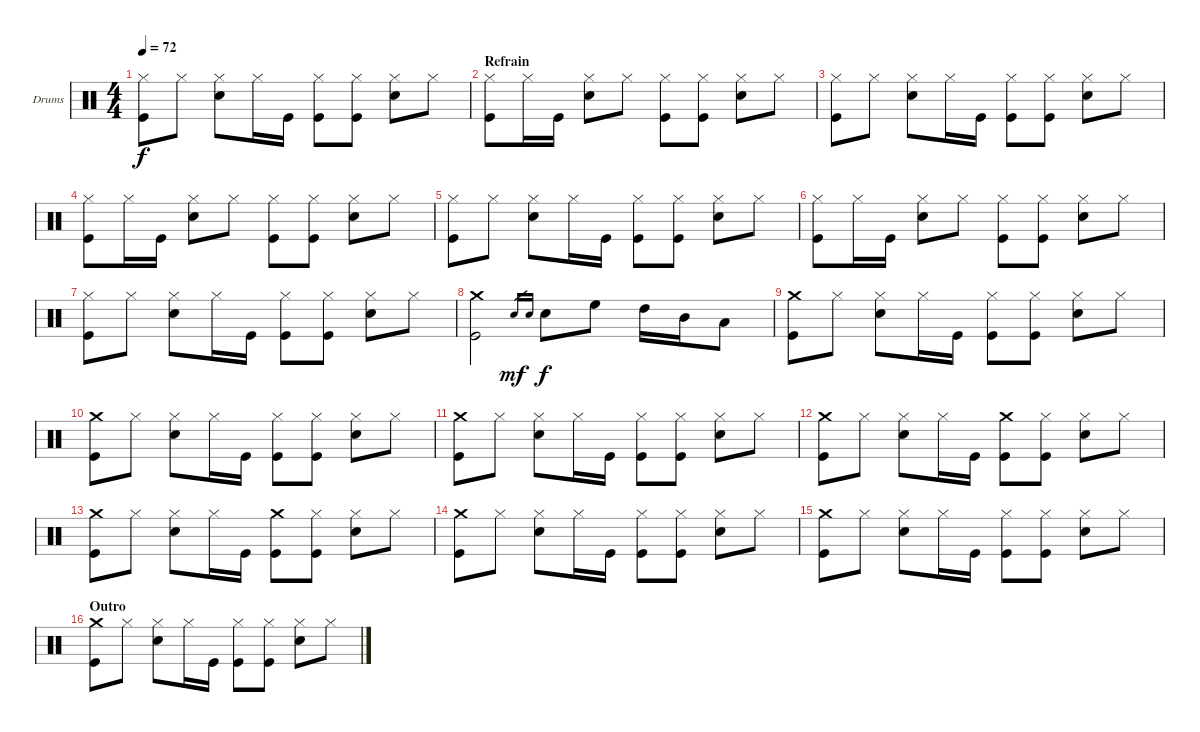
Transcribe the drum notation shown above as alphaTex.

\bracketExtendMode groupsimilarinstruments
\firstSystemTrackNameOrientation horizontal
\otherSystemsTrackNameOrientation horizontal
\track ("Roger Taylor" "Drums") {multiBarRest instrument percussion}
\staff {score}
\articulation defaults
\ts (4 4)
\tempo 72
\clef neutral
\ks c
("Hi-Hat (closed)" "Kick (hit)").8{dy f} "Hi-Hat (closed)".8 ("Hi-Hat (closed)" "Snare (hit) 2").8 "Hi-Hat (closed)".16 "Kick (hit)".16 ("Hi-Hat (closed)" "Kick (hit)").8 ("Hi-Hat (closed)" "Kick (hit)").8 ("Hi-Hat (closed)" "Snare (hit) 2").8 "Hi-Hat (closed)".8 |
\section ("" "Refrain")
("Hi-Hat (closed)" "Kick (hit)").8 "Hi-Hat (closed)".16 "Kick (hit)".16 ("Hi-Hat (closed)" "Snare (hit) 2").8 "Hi-Hat (closed)".8 ("Hi-Hat (closed)" "Kick (hit)").8 ("Hi-Hat (closed)" "Kick (hit)").8 ("Hi-Hat (closed)" "Snare (hit) 2").8 "Hi-Hat (closed)".8 |
("Hi-Hat (closed)" "Kick (hit)").8 "Hi-Hat (closed)".8 ("Hi-Hat (closed)" "Snare (hit) 2").8 "Hi-Hat (closed)".16 "Kick (hit)".16 ("Hi-Hat (closed)" "Kick (hit)").8 ("Hi-Hat (closed)" "Kick (hit)").8 ("Hi-Hat (closed)" "Snare (hit) 2").8 "Hi-Hat (closed)".8 |
("Hi-Hat (closed)" "Kick (hit)").8 "Hi-Hat (closed)".16 "Kick (hit)".16 ("Hi-Hat (closed)" "Snare (hit) 2").8 "Hi-Hat (closed)".8 ("Hi-Hat (closed)" "Kick (hit)").8 ("Hi-Hat (closed)" "Kick (hit)").8 ("Hi-Hat (closed)" "Snare (hit) 2").8 "Hi-Hat (closed)".8 |
("Hi-Hat (closed)" "Kick (hit)").8 "Hi-Hat (closed)".8 ("Hi-Hat (closed)" "Snare (hit) 2").8 "Hi-Hat (closed)".16 "Kick (hit)".16 ("Hi-Hat (closed)" "Kick (hit)").8 ("Hi-Hat (closed)" "Kick (hit)").8 ("Hi-Hat (closed)" "Snare (hit) 2").8 "Hi-Hat (closed)".8 |
("Hi-Hat (closed)" "Kick (hit)").8 "Hi-Hat (closed)".16 "Kick (hit)".16 ("Hi-Hat (closed)" "Snare (hit) 2").8 "Hi-Hat (closed)".8 ("Hi-Hat (closed)" "Kick (hit)").8 ("Hi-Hat (closed)" "Kick (hit)").8 ("Hi-Hat (closed)" "Snare (hit) 2").8 "Hi-Hat (closed)".8 |
("Hi-Hat (closed)" "Kick (hit)").8 "Hi-Hat (closed)".8 ("Hi-Hat (closed)" "Snare (hit) 2").8 "Hi-Hat (closed)".16 "Kick (hit)".16 ("Hi-Hat (closed)" "Kick (hit)").8 ("Hi-Hat (closed)" "Kick (hit)").8 ("Hi-Hat (closed)" "Snare (hit) 2").8 "Hi-Hat (closed)".8 |
("Crash medium (hit)" "Kick (hit)").2 "Snare (hit) 2".16{gr dy mf} "Snare (hit) 2".16{gr} "Snare (hit) 2".8{dy f} "High Floor Tom (hit)".8 "High Tom (hit)".16 "Mid Tom (hit)".16 "Low Tom (hit)".8 |
("Crash medium (hit)" "Kick (hit)").8 "Hi-Hat (closed)".8 ("Hi-Hat (closed)" "Snare (hit) 2").8 "Hi-Hat (closed)".16 "Kick (hit)".16 ("Hi-Hat (closed)" "Kick (hit)").8 ("Hi-Hat (closed)" "Kick (hit)").8 ("Hi-Hat (closed)" "Snare (hit) 2").8 "Hi-Hat (closed)".8 |
("Crash medium (hit)" "Kick (hit)").8 "Hi-Hat (closed)".8 ("Hi-Hat (closed)" "Snare (hit) 2").8 "Hi-Hat (closed)".16 "Kick (hit)".16 ("Hi-Hat (closed)" "Kick (hit)").8 ("Hi-Hat (closed)" "Kick (hit)").8 ("Hi-Hat (closed)" "Snare (hit) 2").8 "Hi-Hat (closed)".8 |
("Crash medium (hit)" "Kick (hit)").8 "Hi-Hat (closed)".8 ("Hi-Hat (closed)" "Snare (hit) 2").8 "Hi-Hat (closed)".16 "Kick (hit)".16 ("Hi-Hat (closed)" "Kick (hit)").8 ("Hi-Hat (closed)" "Kick (hit)").8 ("Hi-Hat (closed)" "Snare (hit) 2").8 "Hi-Hat (closed)".8 |
("Crash medium (hit)" "Kick (hit)").8 "Hi-Hat (closed)".8 ("Hi-Hat (closed)" "Snare (hit) 2").8 "Hi-Hat (closed)".16 "Kick (hit)".16 ("Crash medium (hit)" "Kick (hit)").8 ("Hi-Hat (closed)" "Kick (hit)").8 ("Hi-Hat (closed)" "Snare (hit) 2").8 "Hi-Hat (closed)".8 |
("Crash medium (hit)" "Kick (hit)").8 "Hi-Hat (closed)".8 ("Hi-Hat (closed)" "Snare (hit) 2").8 "Hi-Hat (closed)".16 "Kick (hit)".16 ("Crash medium (hit)" "Kick (hit)").8 ("Hi-Hat (closed)" "Kick (hit)").8 ("Hi-Hat (closed)" "Snare (hit) 2").8 "Hi-Hat (closed)".8 |
("Crash medium (hit)" "Kick (hit)").8 "Hi-Hat (closed)".8 ("Hi-Hat (closed)" "Snare (hit) 2").8 "Hi-Hat (closed)".16 "Kick (hit)".16 ("Hi-Hat (closed)" "Kick (hit)").8 ("Hi-Hat (closed)" "Kick (hit)").8 ("Hi-Hat (closed)" "Snare (hit) 2").8 "Hi-Hat (closed)".8 |
("Crash medium (hit)" "Kick (hit)").8 "Hi-Hat (closed)".8 ("Hi-Hat (closed)" "Snare (hit) 2").8 "Hi-Hat (closed)".16 "Kick (hit)".16 ("Hi-Hat (closed)" "Kick (hit)").8 ("Hi-Hat (closed)" "Kick (hit)").8 ("Hi-Hat (closed)" "Snare (hit) 2").8 "Hi-Hat (closed)".8 |
\section ("" "Outro")
("Crash medium (hit)" "Kick (hit)").8 "Hi-Hat (closed)".8 ("Hi-Hat (closed)" "Snare (hit) 2").8 "Hi-Hat (closed)".16 "Kick (hit)".16 ("Hi-Hat (closed)" "Kick (hit)").8 ("Hi-Hat (closed)" "Kick (hit)").8 ("Hi-Hat (closed)" "Snare (hit) 2").8 "Hi-Hat (closed)".8
